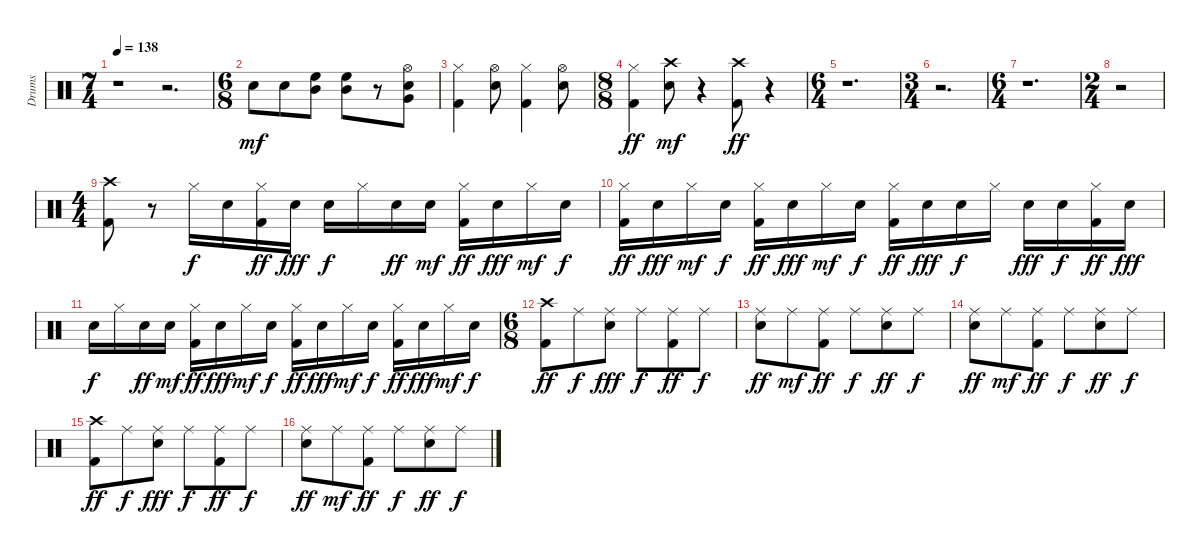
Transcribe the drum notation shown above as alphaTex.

\track ("Drums" "Drums") {instrument percussion}
\staff {score}
\articulation defaults
\ts (7 4)
\tempo 138
\clef neutral
\ks c
r.1{dy mf} r.2{d} |
\ts (6 8)
"Snare (hit) 2".8 "Snare (hit) 2".8 ("Mid Tom (hit)" "High Floor Tom (hit)").8 ("Mid Tom (hit)" "High Floor Tom (hit)").8 r.8 ("Hi-Hat (open)" "Very Low Tom (hit)" "Snare (hit) 2").8 |
("Kick (hit) 2" "Hi-Hat (closed)").4 ("Snare (hit) 2" "Hi-Hat (open)").8 ("Kick (hit) 2" "Hi-Hat (closed)").4 ("Snare (hit) 2" "Hi-Hat (open)").8 |
\ts (8 8)
("Kick (hit) 2" "Hi-Hat (closed)").4{dy ff} ("Snare (hit) 2" "Crash high (hit)").8{dy mf} r.4 ("Kick (hit) 2" "Crash high (hit)").8{dy ff} r.4 |
\ts (6 4)
r.1{d} |
\ts (3 4)
r.2{d} |
\ts (6 4)
r.1{d} |
\ts (2 4)
r.2 |
\ts (4 4)
("Kick (hit) 2" "Crash high (hit)").8 r.8 "Hi-Hat (closed)".16{dy f} "Electric Snare (hit)".16 ("Kick (hit) 2" "Hi-Hat (closed)").16{dy ff} "Electric Snare (hit)".16{dy fff} "Electric Snare (hit)".16{dy f} "Hi-Hat (closed)".16 "Electric Snare (hit)".16{dy ff} "Electric Snare (hit)".16{dy mf} ("Kick (hit) 2" "Hi-Hat (closed)").16{dy ff} "Electric Snare (hit)".16{dy fff} "Hi-Hat (closed)".16{dy mf} "Electric Snare (hit)".16{dy f} |
("Kick (hit) 2" "Hi-Hat (closed)").16{dy ff} "Electric Snare (hit)".16{dy fff} "Hi-Hat (closed)".16{dy mf} "Electric Snare (hit)".16{dy f} ("Kick (hit) 2" "Hi-Hat (closed)").16{dy ff} "Electric Snare (hit)".16{dy fff} "Hi-Hat (closed)".16{dy mf} "Electric Snare (hit)".16{dy f} ("Kick (hit) 2" "Hi-Hat (closed)").16{dy ff} "Electric Snare (hit)".16{dy fff} "Electric Snare (hit)".16{dy f} "Hi-Hat (closed)".16 "Electric Snare (hit)".16{dy fff} "Electric Snare (hit)".16{dy f} ("Kick (hit) 2" "Hi-Hat (closed)").16{dy ff} "Electric Snare (hit)".16{dy fff} |
"Electric Snare (hit)".16{dy f} "Hi-Hat (closed)".16 "Electric Snare (hit)".16{dy ff} "Electric Snare (hit)".16{dy mf} ("Kick (hit) 2" "Hi-Hat (closed)").16{dy ff} "Electric Snare (hit)".16{dy fff} "Hi-Hat (closed)".16{dy mf} "Electric Snare (hit)".16{dy f} ("Kick (hit) 2" "Hi-Hat (closed)").16{dy ff} "Electric Snare (hit)".16{dy fff} "Hi-Hat (closed)".16{dy mf} "Electric Snare (hit)".16{dy f} ("Kick (hit) 2" "Hi-Hat (closed)").16{dy ff} "Electric Snare (hit)".16{dy fff} "Hi-Hat (closed)".16{dy mf} "Electric Snare (hit)".16{dy f} |
\ts (6 8)
("Kick (hit) 2" "Crash high (hit)").8{dy ff} "Ride (middle)".8{dy f} ("Snare (hit) 2" "Ride (middle)").8{dy fff} "Ride (middle)".8{dy f} ("Kick (hit) 2" "Ride (middle)").8{dy ff} "Ride (middle)".8{dy f} |
("Snare (hit) 2" "Ride (middle)").8{dy ff} "Ride (middle)".8{dy mf} ("Kick (hit) 2" "Ride (middle)").8{dy ff} "Ride (middle)".8{dy f} ("Snare (hit) 2" "Ride (middle)").8{dy ff} "Ride (middle)".8{dy f} |
("Snare (hit) 2" "Ride (middle)").8{dy ff} "Ride (middle)".8{dy mf} ("Kick (hit) 2" "Ride (middle)").8{dy ff} "Ride (middle)".8{dy f} ("Snare (hit) 2" "Ride (middle)").8{dy ff} "Ride (middle)".8{dy f} |
("Kick (hit) 2" "Crash high (hit)").8{dy ff} "Ride (middle)".8{dy f} ("Snare (hit) 2" "Ride (middle)").8{dy fff} "Ride (middle)".8{dy f} ("Kick (hit) 2" "Ride (middle)").8{dy ff} "Ride (middle)".8{dy f} |
("Snare (hit) 2" "Ride (middle)").8{dy ff} "Ride (middle)".8{dy mf} ("Kick (hit) 2" "Ride (middle)").8{dy ff} "Ride (middle)".8{dy f} ("Snare (hit) 2" "Ride (middle)").8{dy ff} "Ride (middle)".8{dy f}
